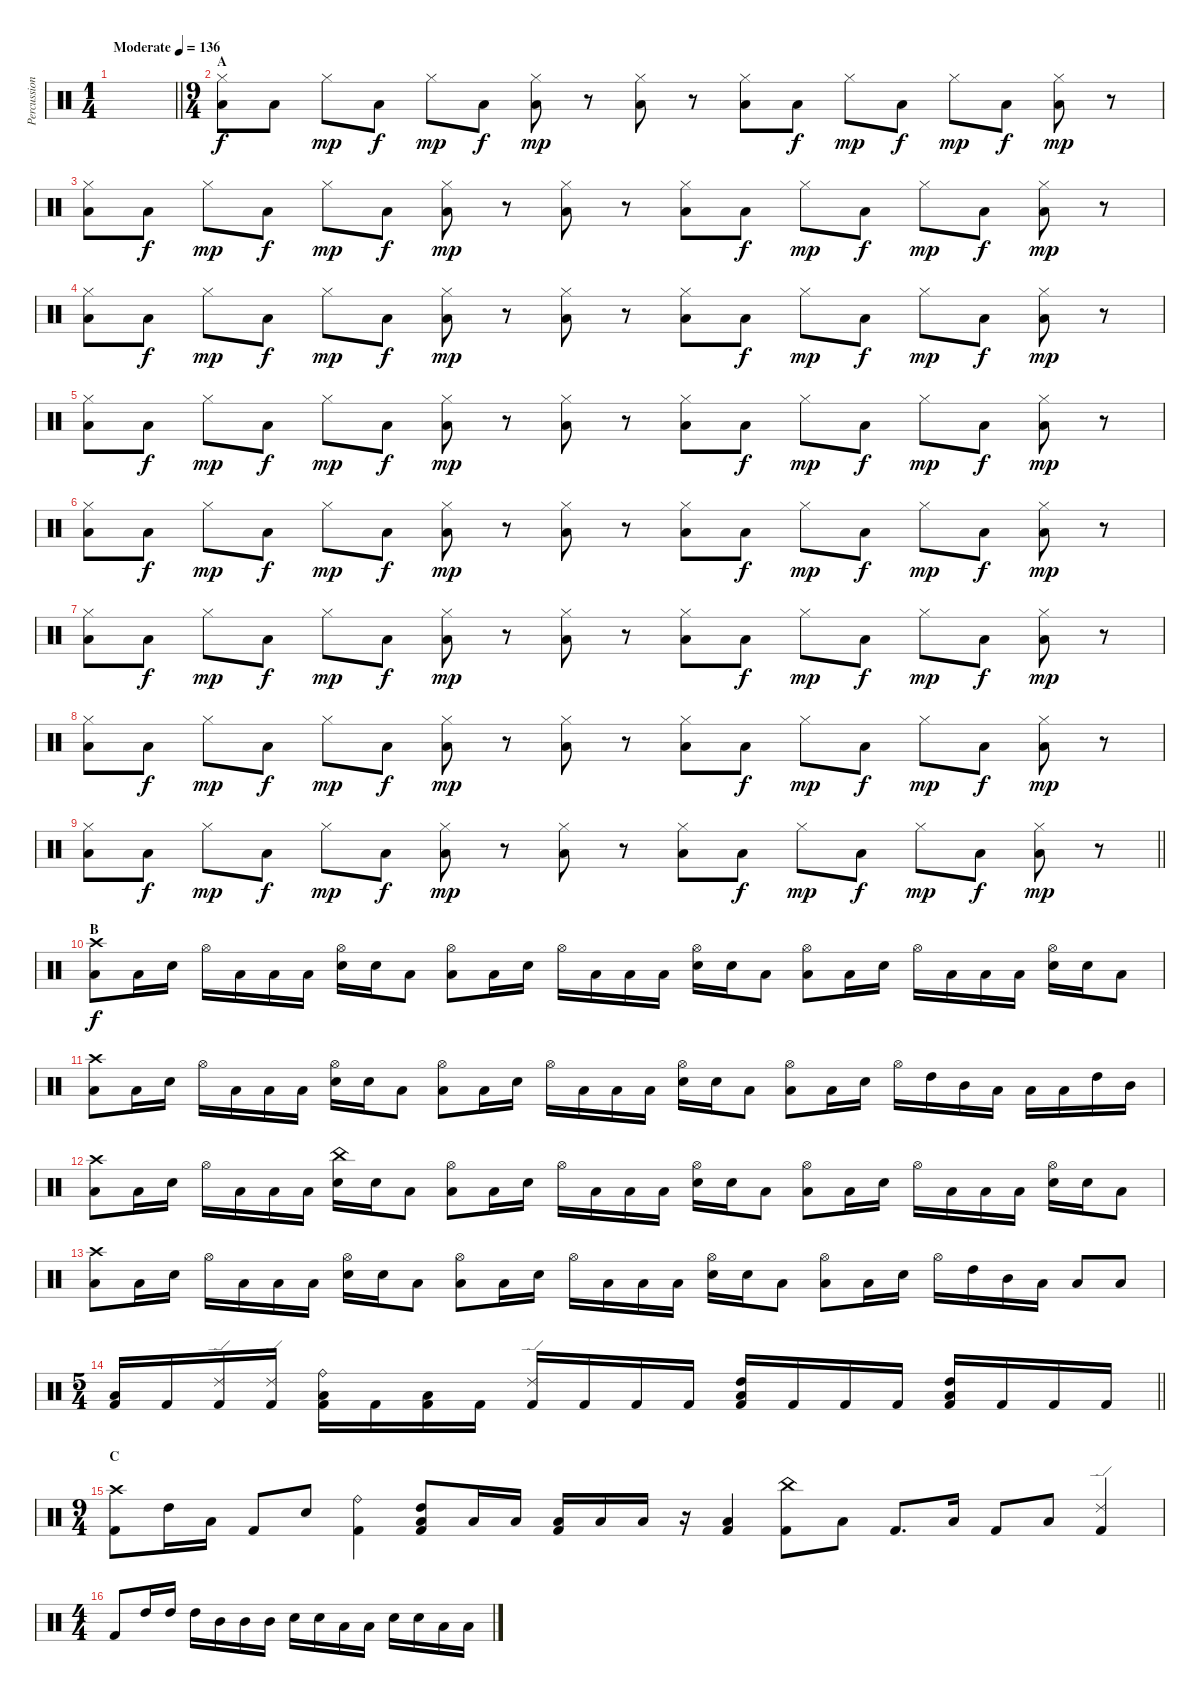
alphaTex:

\track ("Percussions" "Percussion") {instrument percussion}
\staff {score}
\articulation defaults
\ts (1 4)
\tempo (136 "Moderate")
\clef neutral
\barLineRight lightlight
\ks c
|
\ts (9 4)
\section ("" "A")
("Hi-Hat (closed)" "Low Tom (hit)").8 "Low Tom (hit)".8{dy f} "Hi-Hat (closed)".8{dy mp} "Low Tom (hit)".8{dy f} "Hi-Hat (closed)".8{dy mp} "Low Tom (hit)".8{dy f} ("Hi-Hat (closed)" "Low Tom (hit)").8{dy mp} r.8 ("Hi-Hat (closed)" "Low Tom (hit)").8 r.8 ("Hi-Hat (closed)" "Low Tom (hit)").8 "Low Tom (hit)".8{dy f} "Hi-Hat (closed)".8{dy mp} "Low Tom (hit)".8{dy f} "Hi-Hat (closed)".8{dy mp} "Low Tom (hit)".8{dy f} ("Hi-Hat (closed)" "Low Tom (hit)").8{dy mp} r.8 |
("Hi-Hat (closed)" "Low Tom (hit)").8 "Low Tom (hit)".8{dy f} "Hi-Hat (closed)".8{dy mp} "Low Tom (hit)".8{dy f} "Hi-Hat (closed)".8{dy mp} "Low Tom (hit)".8{dy f} ("Hi-Hat (closed)" "Low Tom (hit)").8{dy mp} r.8 ("Hi-Hat (closed)" "Low Tom (hit)").8 r.8 ("Hi-Hat (closed)" "Low Tom (hit)").8 "Low Tom (hit)".8{dy f} "Hi-Hat (closed)".8{dy mp} "Low Tom (hit)".8{dy f} "Hi-Hat (closed)".8{dy mp} "Low Tom (hit)".8{dy f} ("Hi-Hat (closed)" "Low Tom (hit)").8{dy mp} r.8 |
("Hi-Hat (closed)" "Low Tom (hit)").8 "Low Tom (hit)".8{dy f} "Hi-Hat (closed)".8{dy mp} "Low Tom (hit)".8{dy f} "Hi-Hat (closed)".8{dy mp} "Low Tom (hit)".8{dy f} ("Hi-Hat (closed)" "Low Tom (hit)").8{dy mp} r.8 ("Hi-Hat (closed)" "Low Tom (hit)").8 r.8 ("Hi-Hat (closed)" "Low Tom (hit)").8 "Low Tom (hit)".8{dy f} "Hi-Hat (closed)".8{dy mp} "Low Tom (hit)".8{dy f} "Hi-Hat (closed)".8{dy mp} "Low Tom (hit)".8{dy f} ("Hi-Hat (closed)" "Low Tom (hit)").8{dy mp} r.8 |
("Hi-Hat (closed)" "Low Tom (hit)").8 "Low Tom (hit)".8{dy f} "Hi-Hat (closed)".8{dy mp} "Low Tom (hit)".8{dy f} "Hi-Hat (closed)".8{dy mp} "Low Tom (hit)".8{dy f} ("Hi-Hat (closed)" "Low Tom (hit)").8{dy mp} r.8 ("Hi-Hat (closed)" "Low Tom (hit)").8 r.8 ("Hi-Hat (closed)" "Low Tom (hit)").8 "Low Tom (hit)".8{dy f} "Hi-Hat (closed)".8{dy mp} "Low Tom (hit)".8{dy f} "Hi-Hat (closed)".8{dy mp} "Low Tom (hit)".8{dy f} ("Hi-Hat (closed)" "Low Tom (hit)").8{dy mp} r.8 |
("Hi-Hat (closed)" "Low Tom (hit)").8 "Low Tom (hit)".8{dy f} "Hi-Hat (closed)".8{dy mp} "Low Tom (hit)".8{dy f} "Hi-Hat (closed)".8{dy mp} "Low Tom (hit)".8{dy f} ("Hi-Hat (closed)" "Low Tom (hit)").8{dy mp} r.8 ("Hi-Hat (closed)" "Low Tom (hit)").8 r.8 ("Hi-Hat (closed)" "Low Tom (hit)").8 "Low Tom (hit)".8{dy f} "Hi-Hat (closed)".8{dy mp} "Low Tom (hit)".8{dy f} "Hi-Hat (closed)".8{dy mp} "Low Tom (hit)".8{dy f} ("Hi-Hat (closed)" "Low Tom (hit)").8{dy mp} r.8 |
("Hi-Hat (closed)" "Low Tom (hit)").8 "Low Tom (hit)".8{dy f} "Hi-Hat (closed)".8{dy mp} "Low Tom (hit)".8{dy f} "Hi-Hat (closed)".8{dy mp} "Low Tom (hit)".8{dy f} ("Hi-Hat (closed)" "Low Tom (hit)").8{dy mp} r.8 ("Hi-Hat (closed)" "Low Tom (hit)").8 r.8 ("Hi-Hat (closed)" "Low Tom (hit)").8 "Low Tom (hit)".8{dy f} "Hi-Hat (closed)".8{dy mp} "Low Tom (hit)".8{dy f} "Hi-Hat (closed)".8{dy mp} "Low Tom (hit)".8{dy f} ("Hi-Hat (closed)" "Low Tom (hit)").8{dy mp} r.8 |
("Hi-Hat (closed)" "Low Tom (hit)").8 "Low Tom (hit)".8{dy f} "Hi-Hat (closed)".8{dy mp} "Low Tom (hit)".8{dy f} "Hi-Hat (closed)".8{dy mp} "Low Tom (hit)".8{dy f} ("Hi-Hat (closed)" "Low Tom (hit)").8{dy mp} r.8 ("Hi-Hat (closed)" "Low Tom (hit)").8 r.8 ("Hi-Hat (closed)" "Low Tom (hit)").8 "Low Tom (hit)".8{dy f} "Hi-Hat (closed)".8{dy mp} "Low Tom (hit)".8{dy f} "Hi-Hat (closed)".8{dy mp} "Low Tom (hit)".8{dy f} ("Hi-Hat (closed)" "Low Tom (hit)").8{dy mp} r.8 |
\barLineRight lightlight
("Hi-Hat (closed)" "Low Tom (hit)").8 "Low Tom (hit)".8{dy f} "Hi-Hat (closed)".8{dy mp} "Low Tom (hit)".8{dy f} "Hi-Hat (closed)".8{dy mp} "Low Tom (hit)".8{dy f} ("Hi-Hat (closed)" "Low Tom (hit)").8{dy mp} r.8 ("Hi-Hat (closed)" "Low Tom (hit)").8 r.8 ("Hi-Hat (closed)" "Low Tom (hit)").8 "Low Tom (hit)".8{dy f} "Hi-Hat (closed)".8{dy mp} "Low Tom (hit)".8{dy f} "Hi-Hat (closed)".8{dy mp} "Low Tom (hit)".8{dy f} ("Hi-Hat (closed)" "Low Tom (hit)").8{dy mp} r.8 |
\section ("" "B")
("Crash high (hit)" "Low Tom (hit)").8{dy f} "Low Tom (hit)".16 "Snare (hit) 2".16 "Hi-Hat (open)".16 "Low Tom (hit)".16 "Low Tom (hit)".16 "Low Tom (hit)".16 ("Hi-Hat (open)" "Snare (hit) 2").16 "Snare (hit) 2".16 "Low Tom (hit)".8 ("Hi-Hat (open)" "Low Tom (hit)").8 "Low Tom (hit)".16 "Snare (hit) 2".16 "Hi-Hat (open)".16 "Low Tom (hit)".16 "Low Tom (hit)".16 "Low Tom (hit)".16 ("Hi-Hat (open)" "Snare (hit) 2").16 "Snare (hit) 2".16 "Low Tom (hit)".8 ("Hi-Hat (open)" "Low Tom (hit)").8 "Low Tom (hit)".16 "Snare (hit) 2".16 "Hi-Hat (open)".16 "Low Tom (hit)".16 "Low Tom (hit)".16 "Low Tom (hit)".16 ("Hi-Hat (open)" "Snare (hit) 2").16 "Snare (hit) 2".16 "Low Tom (hit)".8 |
("Crash high (hit)" "Low Tom (hit)").8 "Low Tom (hit)".16 "Snare (hit) 2".16 "Hi-Hat (open)".16 "Low Tom (hit)".16 "Low Tom (hit)".16 "Low Tom (hit)".16 ("Hi-Hat (open)" "Snare (hit) 2").16 "Snare (hit) 2".16 "Low Tom (hit)".8 ("Hi-Hat (open)" "Low Tom (hit)").8 "Low Tom (hit)".16 "Snare (hit) 2".16 "Hi-Hat (open)".16 "Low Tom (hit)".16 "Low Tom (hit)".16 "Low Tom (hit)".16 ("Hi-Hat (open)" "Snare (hit) 2").16 "Snare (hit) 2".16 "Low Tom (hit)".8 ("Hi-Hat (open)" "Low Tom (hit)").8 "Low Tom (hit)".16 "Snare (hit) 2".16 "Hi-Hat (open)".16 "High Tom (hit)".16 "Mid Tom (hit)".16 "Low Tom (hit)".16 "Low Floor Tom (hit)".16 "Low Floor Tom (hit)".16 "High Tom (hit)".16 "Mid Tom (hit)".16 |
("Crash high (hit)" "Low Tom (hit)").8 "Low Tom (hit)".16 "Snare (hit) 2".16 "Hi-Hat (open)".16 "Low Tom (hit)".16 "Low Tom (hit)".16 "Low Tom (hit)".16 ("China (hit)" "Snare (hit) 2").16 "Snare (hit) 2".16 "Low Tom (hit)".8 ("Hi-Hat (open)" "Low Tom (hit)").8 "Low Tom (hit)".16 "Snare (hit) 2".16 "Hi-Hat (open)".16 "Low Tom (hit)".16 "Low Tom (hit)".16 "Low Tom (hit)".16 ("Hi-Hat (open)" "Snare (hit) 2").16 "Snare (hit) 2".16 "Low Tom (hit)".8 ("Hi-Hat (open)" "Low Tom (hit)").8 "Low Tom (hit)".16 "Snare (hit) 2".16 "Hi-Hat (open)".16 "Low Tom (hit)".16 "Low Tom (hit)".16 "Low Tom (hit)".16 ("Hi-Hat (open)" "Snare (hit) 2").16 "Snare (hit) 2".16 "Low Tom (hit)".8 |
("Crash high (hit)" "Low Tom (hit)").8 "Low Tom (hit)".16 "Snare (hit) 2".16 "Hi-Hat (open)".16 "Low Tom (hit)".16 "Low Tom (hit)".16 "Low Tom (hit)".16 ("Hi-Hat (open)" "Snare (hit) 2").16 "Snare (hit) 2".16 "Low Tom (hit)".8 ("Hi-Hat (open)" "Low Tom (hit)").8 "Low Tom (hit)".16 "Snare (hit) 2".16 "Hi-Hat (open)".16 "Low Tom (hit)".16 "Low Tom (hit)".16 "Low Tom (hit)".16 ("Hi-Hat (open)" "Snare (hit) 2").16 "Snare (hit) 2".16 "Low Tom (hit)".8 ("Hi-Hat (open)" "Low Tom (hit)").8 "Low Tom (hit)".16 "Snare (hit) 2".16 "Hi-Hat (open)".16 "High Tom (hit)".16 "Mid Tom (hit)".16 "Low Tom (hit)".16 "Low Floor Tom (hit)".8 "Low Floor Tom (hit)".8 |
\ts (5 4)
\barLineRight lightlight
("Low Tom (hit)" "Kick (hit) 2").16 "Kick (hit) 2".16 ("Ride (edge) 2" "Kick (hit) 2").16 ("Ride (edge) 2" "Kick (hit) 2").16 ("Ride (bell)" "Low Tom (hit)" "Kick (hit) 2").16 "Kick (hit) 2".16 ("Low Tom (hit)" "Kick (hit) 2").16 "Kick (hit) 2".16 ("Ride (edge) 2" "Kick (hit) 2").16 "Kick (hit) 2".16 "Kick (hit) 2".16 "Kick (hit) 2".16 ("Low Tom (hit)" "High Tom (hit)" "Kick (hit) 2").16 "Kick (hit) 2".16 "Kick (hit) 2".16 "Kick (hit) 2".16 ("Low Tom (hit)" "High Tom (hit)" "Kick (hit) 2").16 "Kick (hit) 2".16 "Kick (hit) 2".16 "Kick (hit) 2".16 |
\ts (9 4)
\section ("" "C")
("Crash high (hit)" "Kick (hit) 2").8 "High Tom (hit)".16 "Low Tom (hit)".16 "Kick (hit) 2".8 "Snare (hit) 2".8 ("Ride (bell)" "Kick (hit) 2").4 ("Low Tom (hit)" "High Tom (hit)" "Kick (hit) 2").8 "Low Tom (hit)".16 "Low Tom (hit)".16 ("Low Tom (hit)" "Kick (hit) 2").16 "Low Tom (hit)".16 "Low Tom (hit)".16 r.16 ("Low Tom (hit)" "Kick (hit) 2").4 ("China (hit)" "Kick (hit) 2").8 "Low Tom (hit)".8 "Kick (hit) 2".8{d} "Low Tom (hit)".16 "Kick (hit) 2".8 "Low Tom (hit)".8 ("Ride (edge) 2" "Kick (hit) 2").4 |
\ts (4 4)
"Kick (hit) 2".8 "High Tom (hit)".16 "High Tom (hit)".16 "High Tom (hit)".16 "Mid Tom (hit)".16 "Mid Tom (hit)".16 "Mid Tom (hit)".16 "Snare (hit) 2".16 "Snare (hit) 2".16 "Low Floor Tom (hit)".16 "Low Floor Tom (hit)".16 "Snare (hit) 2".16 "Snare (hit) 2".16 "Low Floor Tom (hit)".16 "Low Floor Tom (hit)".16
